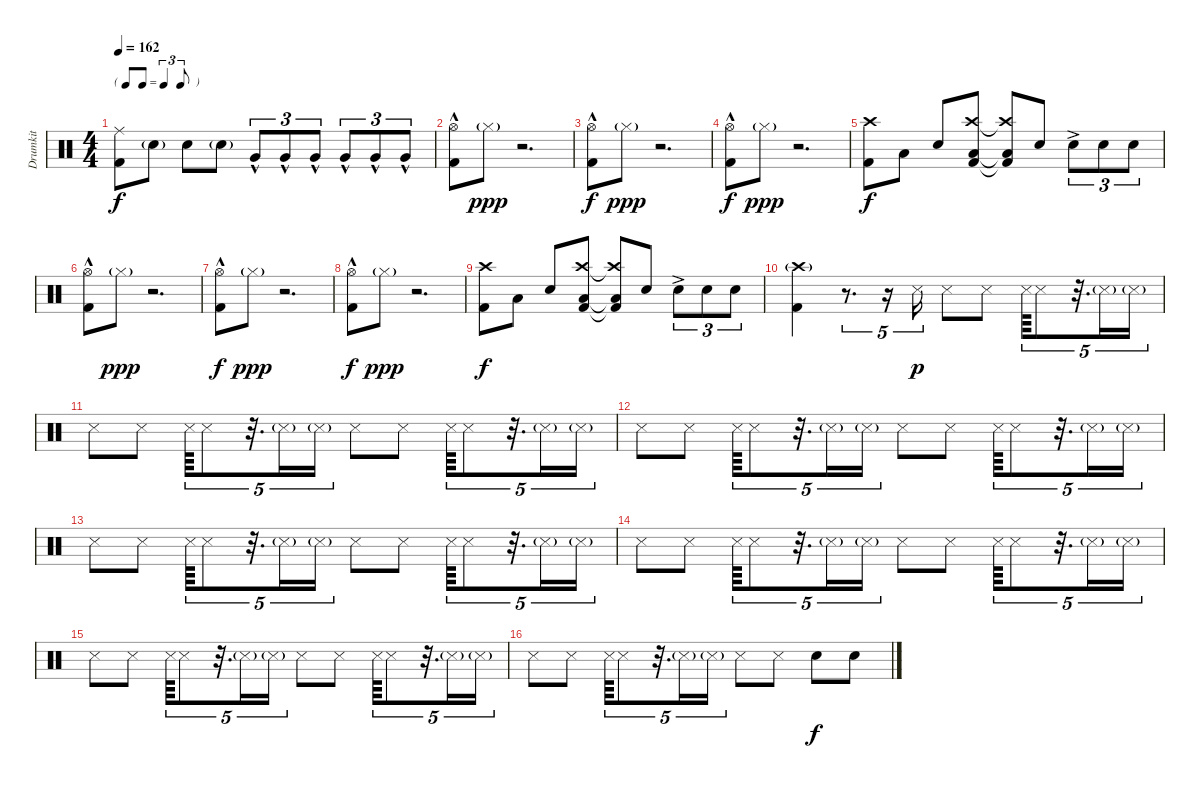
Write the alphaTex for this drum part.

\track ("Drumkit" "Drumkit") {instrument percussion}
\staff {score}
\articulation defaults
\ts (4 4)
\tf triplet8th
\tempo 162
\clef neutral
\ks c
("Kick (hit) 2" "Ride (middle)").8{dy f} "Snare (hit) 2"{g}.8 "Snare (hit) 2".8 "Snare (hit) 2"{g}.8 "Very Low Tom (hit)"{hac}.8{tu (3 2)} "Very Low Tom (hit)"{hac}.8{tu (3 2)} "Very Low Tom (hit)"{hac}.8{tu (3 2)} "Very Low Tom (hit)"{hac}.8{tu (3 2)} "Very Low Tom (hit)"{hac}.8{tu (3 2)} "Very Low Tom (hit)"{hac}.8{tu (3 2)} |
("Hi-Hat (open)"{hac} "Kick (hit) 2").8 "Hi-Hat (closed)"{g}.8{dy ppp} r.2{d} |
("Hi-Hat (open)"{hac} "Kick (hit) 2").8{dy f} "Hi-Hat (closed)"{g}.8{dy ppp} r.2{d} |
("Hi-Hat (open)"{hac} "Kick (hit) 2").8{dy f} "Hi-Hat (closed)"{g}.8{dy ppp} r.2{d} |
("Crash high (hit)" "Kick (hit) 2").8{dy f} "Low Floor Tom (hit)".8 "Snare (hit) 2".8 ("Crash high (hit)" "Kick (hit) 2" "Low Floor Tom (hit)").8 ("Crash high (hit)"{t} "Kick (hit) 2"{t} "Low Floor Tom (hit)"{t}).8 "Snare (hit) 2".8 "Snare (hit) 2"{ac}.8{tu (3 2)} "Snare (hit) 2".8{tu (3 2)} "Snare (hit) 2".8{tu (3 2)} |
("Hi-Hat (open)"{hac} "Kick (hit) 2").8 "Hi-Hat (closed)"{g}.8{dy ppp} r.2{d} |
("Hi-Hat (open)"{hac} "Kick (hit) 2").8{dy f} "Hi-Hat (closed)"{g}.8{dy ppp} r.2{d} |
("Hi-Hat (open)"{hac} "Kick (hit) 2").8{dy f} "Hi-Hat (closed)"{g}.8{dy ppp} r.2{d} |
("Crash high (hit)" "Kick (hit) 2").8{dy f} "Low Floor Tom (hit)".8 "Snare (hit) 2".8 ("Crash high (hit)" "Kick (hit) 2" "Low Floor Tom (hit)").8 ("Crash high (hit)"{t} "Kick (hit) 2"{t} "Low Floor Tom (hit)"{t}).8 "Snare (hit) 2".8 "Snare (hit) 2"{ac}.8{tu (3 2)} "Snare (hit) 2".8{tu (3 2)} "Snare (hit) 2".8{tu (3 2)} |
("Kick (hit) 2" "Crash high (hit)"{g}).4 r.8{d tu (5 4)} r.16{tu (5 4)} "Snare (side stick) 3".16{tu (5 4) dy p} "Snare (side stick) 3".8 "Snare (side stick) 3".8 "Snare (side stick) 3".64{tu (5 4)} "Snare (side stick) 3".8{tu (5 4)} r.32{d tu (5 4)} "Snare (side stick) 3"{g}.16{tu (5 4)} "Snare (side stick) 3"{g}.16{tu (5 4)} |
"Snare (side stick) 3".8 "Snare (side stick) 3".8 "Snare (side stick) 3".64{tu (5 4)} "Snare (side stick) 3".8{tu (5 4)} r.32{d tu (5 4)} "Snare (side stick) 3"{g}.16{tu (5 4)} "Snare (side stick) 3"{g}.16{tu (5 4)} "Snare (side stick) 3".8 "Snare (side stick) 3".8 "Snare (side stick) 3".64{tu (5 4)} "Snare (side stick) 3".8{tu (5 4)} r.32{d tu (5 4)} "Snare (side stick) 3"{g}.16{tu (5 4)} "Snare (side stick) 3"{g}.16{tu (5 4)} |
"Snare (side stick) 3".8 "Snare (side stick) 3".8 "Snare (side stick) 3".64{tu (5 4)} "Snare (side stick) 3".8{tu (5 4)} r.32{d tu (5 4)} "Snare (side stick) 3"{g}.16{tu (5 4)} "Snare (side stick) 3"{g}.16{tu (5 4)} "Snare (side stick) 3".8 "Snare (side stick) 3".8 "Snare (side stick) 3".64{tu (5 4)} "Snare (side stick) 3".8{tu (5 4)} r.32{d tu (5 4)} "Snare (side stick) 3"{g}.16{tu (5 4)} "Snare (side stick) 3"{g}.16{tu (5 4)} |
"Snare (side stick) 3".8 "Snare (side stick) 3".8 "Snare (side stick) 3".64{tu (5 4)} "Snare (side stick) 3".8{tu (5 4)} r.32{d tu (5 4)} "Snare (side stick) 3"{g}.16{tu (5 4)} "Snare (side stick) 3"{g}.16{tu (5 4)} "Snare (side stick) 3".8 "Snare (side stick) 3".8 "Snare (side stick) 3".64{tu (5 4)} "Snare (side stick) 3".8{tu (5 4)} r.32{d tu (5 4)} "Snare (side stick) 3"{g}.16{tu (5 4)} "Snare (side stick) 3"{g}.16{tu (5 4)} |
"Snare (side stick) 3".8 "Snare (side stick) 3".8 "Snare (side stick) 3".64{tu (5 4)} "Snare (side stick) 3".8{tu (5 4)} r.32{d tu (5 4)} "Snare (side stick) 3"{g}.16{tu (5 4)} "Snare (side stick) 3"{g}.16{tu (5 4)} "Snare (side stick) 3".8 "Snare (side stick) 3".8 "Snare (side stick) 3".64{tu (5 4)} "Snare (side stick) 3".8{tu (5 4)} r.32{d tu (5 4)} "Snare (side stick) 3"{g}.16{tu (5 4)} "Snare (side stick) 3"{g}.16{tu (5 4)} |
"Snare (side stick) 3".8 "Snare (side stick) 3".8 "Snare (side stick) 3".64{tu (5 4)} "Snare (side stick) 3".8{tu (5 4)} r.32{d tu (5 4)} "Snare (side stick) 3"{g}.16{tu (5 4)} "Snare (side stick) 3"{g}.16{tu (5 4)} "Snare (side stick) 3".8 "Snare (side stick) 3".8 "Snare (side stick) 3".64{tu (5 4)} "Snare (side stick) 3".8{tu (5 4)} r.32{d tu (5 4)} "Snare (side stick) 3"{g}.16{tu (5 4)} "Snare (side stick) 3"{g}.16{tu (5 4)} |
"Snare (side stick) 3".8 "Snare (side stick) 3".8 "Snare (side stick) 3".64{tu (5 4)} "Snare (side stick) 3".8{tu (5 4)} r.32{d tu (5 4)} "Snare (side stick) 3"{g}.16{tu (5 4)} "Snare (side stick) 3"{g}.16{tu (5 4)} "Snare (side stick) 3".8 "Snare (side stick) 3".8 "Snare (hit) 2".8{dy f} "Snare (hit) 2".8
